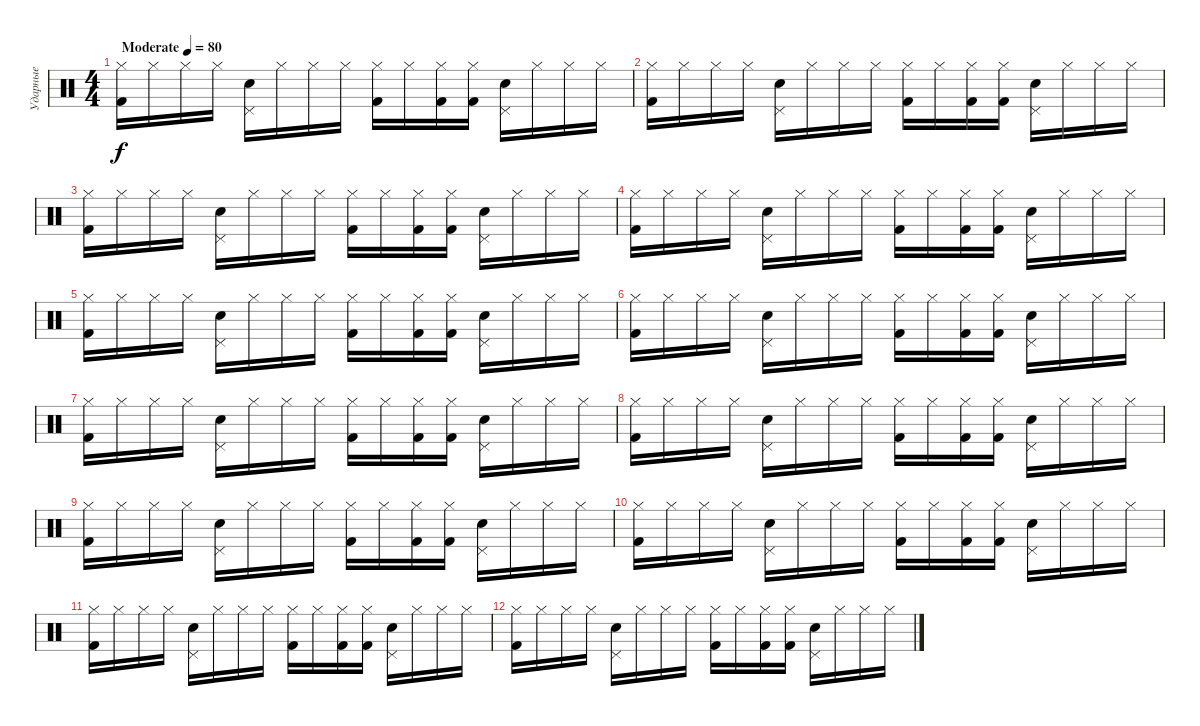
\track ("Ударные" "Ударные") {instrument percussion}
\staff {score}
\articulation defaults
\ts (4 4)
\tempo (80 "Moderate")
\clef neutral
\ks c
("Hi-Hat (closed)" "Kick (hit) 2").16{dy f} "Hi-Hat (closed)".16 "Hi-Hat (closed)".16 "Hi-Hat (closed)".16 ("Pedal Hi-Hat (hit)" "Snare (hit) 2").16 "Hi-Hat (closed)".16 "Hi-Hat (closed)".16 "Hi-Hat (closed)".16 ("Hi-Hat (closed)" "Kick (hit) 2").16 "Hi-Hat (closed)".16 ("Hi-Hat (closed)" "Kick (hit) 2").16 ("Hi-Hat (closed)" "Kick (hit) 2").16 ("Pedal Hi-Hat (hit)" "Snare (hit) 2").16 "Hi-Hat (closed)".16 "Hi-Hat (closed)".16 "Hi-Hat (closed)".16 |
("Hi-Hat (closed)" "Kick (hit) 2").16 "Hi-Hat (closed)".16 "Hi-Hat (closed)".16 "Hi-Hat (closed)".16 ("Pedal Hi-Hat (hit)" "Snare (hit) 2").16 "Hi-Hat (closed)".16 "Hi-Hat (closed)".16 "Hi-Hat (closed)".16 ("Hi-Hat (closed)" "Kick (hit) 2").16 "Hi-Hat (closed)".16 ("Hi-Hat (closed)" "Kick (hit) 2").16 ("Hi-Hat (closed)" "Kick (hit) 2").16 ("Pedal Hi-Hat (hit)" "Snare (hit) 2").16 "Hi-Hat (closed)".16 "Hi-Hat (closed)".16 "Hi-Hat (closed)".16 |
("Hi-Hat (closed)" "Kick (hit) 2").16 "Hi-Hat (closed)".16 "Hi-Hat (closed)".16 "Hi-Hat (closed)".16 ("Pedal Hi-Hat (hit)" "Snare (hit) 2").16 "Hi-Hat (closed)".16 "Hi-Hat (closed)".16 "Hi-Hat (closed)".16 ("Hi-Hat (closed)" "Kick (hit) 2").16 "Hi-Hat (closed)".16 ("Hi-Hat (closed)" "Kick (hit) 2").16 ("Hi-Hat (closed)" "Kick (hit) 2").16 ("Pedal Hi-Hat (hit)" "Snare (hit) 2").16 "Hi-Hat (closed)".16 "Hi-Hat (closed)".16 "Hi-Hat (closed)".16 |
("Hi-Hat (closed)" "Kick (hit) 2").16 "Hi-Hat (closed)".16 "Hi-Hat (closed)".16 "Hi-Hat (closed)".16 ("Pedal Hi-Hat (hit)" "Snare (hit) 2").16 "Hi-Hat (closed)".16 "Hi-Hat (closed)".16 "Hi-Hat (closed)".16 ("Hi-Hat (closed)" "Kick (hit) 2").16 "Hi-Hat (closed)".16 ("Hi-Hat (closed)" "Kick (hit) 2").16 ("Hi-Hat (closed)" "Kick (hit) 2").16 ("Pedal Hi-Hat (hit)" "Snare (hit) 2").16 "Hi-Hat (closed)".16 "Hi-Hat (closed)".16 "Hi-Hat (closed)".16 |
("Hi-Hat (closed)" "Kick (hit) 2").16 "Hi-Hat (closed)".16 "Hi-Hat (closed)".16 "Hi-Hat (closed)".16 ("Pedal Hi-Hat (hit)" "Snare (hit) 2").16 "Hi-Hat (closed)".16 "Hi-Hat (closed)".16 "Hi-Hat (closed)".16 ("Hi-Hat (closed)" "Kick (hit) 2").16 "Hi-Hat (closed)".16 ("Hi-Hat (closed)" "Kick (hit) 2").16 ("Hi-Hat (closed)" "Kick (hit) 2").16 ("Pedal Hi-Hat (hit)" "Snare (hit) 2").16 "Hi-Hat (closed)".16 "Hi-Hat (closed)".16 "Hi-Hat (closed)".16 |
("Hi-Hat (closed)" "Kick (hit) 2").16 "Hi-Hat (closed)".16 "Hi-Hat (closed)".16 "Hi-Hat (closed)".16 ("Pedal Hi-Hat (hit)" "Snare (hit) 2").16 "Hi-Hat (closed)".16 "Hi-Hat (closed)".16 "Hi-Hat (closed)".16 ("Hi-Hat (closed)" "Kick (hit) 2").16 "Hi-Hat (closed)".16 ("Hi-Hat (closed)" "Kick (hit) 2").16 ("Hi-Hat (closed)" "Kick (hit) 2").16 ("Pedal Hi-Hat (hit)" "Snare (hit) 2").16 "Hi-Hat (closed)".16 "Hi-Hat (closed)".16 "Hi-Hat (closed)".16 |
("Hi-Hat (closed)" "Kick (hit) 2").16 "Hi-Hat (closed)".16 "Hi-Hat (closed)".16 "Hi-Hat (closed)".16 ("Pedal Hi-Hat (hit)" "Snare (hit) 2").16 "Hi-Hat (closed)".16 "Hi-Hat (closed)".16 "Hi-Hat (closed)".16 ("Hi-Hat (closed)" "Kick (hit) 2").16 "Hi-Hat (closed)".16 ("Hi-Hat (closed)" "Kick (hit) 2").16 ("Hi-Hat (closed)" "Kick (hit) 2").16 ("Pedal Hi-Hat (hit)" "Snare (hit) 2").16 "Hi-Hat (closed)".16 "Hi-Hat (closed)".16 "Hi-Hat (closed)".16 |
("Hi-Hat (closed)" "Kick (hit) 2").16 "Hi-Hat (closed)".16 "Hi-Hat (closed)".16 "Hi-Hat (closed)".16 ("Pedal Hi-Hat (hit)" "Snare (hit) 2").16 "Hi-Hat (closed)".16 "Hi-Hat (closed)".16 "Hi-Hat (closed)".16 ("Hi-Hat (closed)" "Kick (hit) 2").16 "Hi-Hat (closed)".16 ("Hi-Hat (closed)" "Kick (hit) 2").16 ("Hi-Hat (closed)" "Kick (hit) 2").16 ("Pedal Hi-Hat (hit)" "Snare (hit) 2").16 "Hi-Hat (closed)".16 "Hi-Hat (closed)".16 "Hi-Hat (closed)".16 |
("Hi-Hat (closed)" "Kick (hit) 2").16 "Hi-Hat (closed)".16 "Hi-Hat (closed)".16 "Hi-Hat (closed)".16 ("Pedal Hi-Hat (hit)" "Snare (hit) 2").16 "Hi-Hat (closed)".16 "Hi-Hat (closed)".16 "Hi-Hat (closed)".16 ("Hi-Hat (closed)" "Kick (hit) 2").16 "Hi-Hat (closed)".16 ("Hi-Hat (closed)" "Kick (hit) 2").16 ("Hi-Hat (closed)" "Kick (hit) 2").16 ("Pedal Hi-Hat (hit)" "Snare (hit) 2").16 "Hi-Hat (closed)".16 "Hi-Hat (closed)".16 "Hi-Hat (closed)".16 |
("Hi-Hat (closed)" "Kick (hit) 2").16 "Hi-Hat (closed)".16 "Hi-Hat (closed)".16 "Hi-Hat (closed)".16 ("Pedal Hi-Hat (hit)" "Snare (hit) 2").16 "Hi-Hat (closed)".16 "Hi-Hat (closed)".16 "Hi-Hat (closed)".16 ("Hi-Hat (closed)" "Kick (hit) 2").16 "Hi-Hat (closed)".16 ("Hi-Hat (closed)" "Kick (hit) 2").16 ("Hi-Hat (closed)" "Kick (hit) 2").16 ("Pedal Hi-Hat (hit)" "Snare (hit) 2").16 "Hi-Hat (closed)".16 "Hi-Hat (closed)".16 "Hi-Hat (closed)".16 |
("Hi-Hat (closed)" "Kick (hit) 2").16 "Hi-Hat (closed)".16 "Hi-Hat (closed)".16 "Hi-Hat (closed)".16 ("Pedal Hi-Hat (hit)" "Snare (hit) 2").16 "Hi-Hat (closed)".16 "Hi-Hat (closed)".16 "Hi-Hat (closed)".16 ("Hi-Hat (closed)" "Kick (hit) 2").16 "Hi-Hat (closed)".16 ("Hi-Hat (closed)" "Kick (hit) 2").16 ("Hi-Hat (closed)" "Kick (hit) 2").16 ("Pedal Hi-Hat (hit)" "Snare (hit) 2").16 "Hi-Hat (closed)".16 "Hi-Hat (closed)".16 "Hi-Hat (closed)".16 |
("Hi-Hat (closed)" "Kick (hit) 2").16 "Hi-Hat (closed)".16 "Hi-Hat (closed)".16 "Hi-Hat (closed)".16 ("Pedal Hi-Hat (hit)" "Snare (hit) 2").16 "Hi-Hat (closed)".16 "Hi-Hat (closed)".16 "Hi-Hat (closed)".16 ("Hi-Hat (closed)" "Kick (hit) 2").16 "Hi-Hat (closed)".16 ("Hi-Hat (closed)" "Kick (hit) 2").16 ("Hi-Hat (closed)" "Kick (hit) 2").16 ("Pedal Hi-Hat (hit)" "Snare (hit) 2").16 "Hi-Hat (closed)".16 "Hi-Hat (closed)".16 "Hi-Hat (closed)".16
